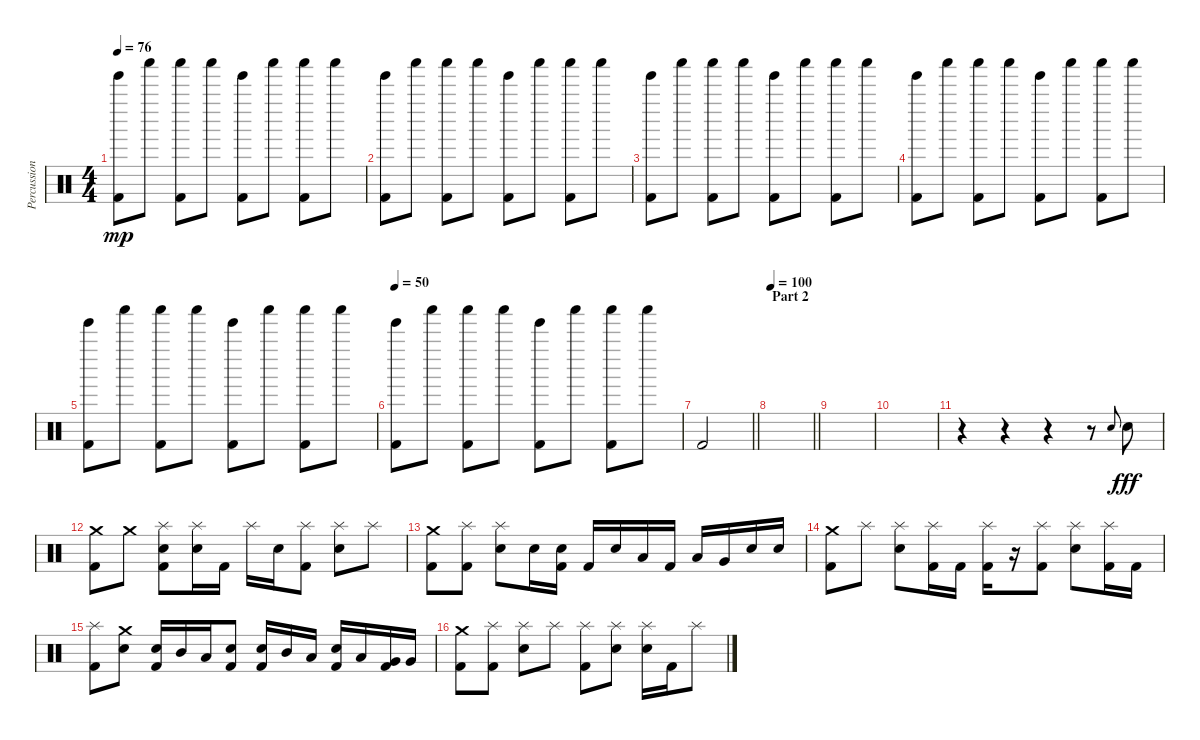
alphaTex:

\track ("Percussion" "Percussion") {instrument percussion}
\staff {score}
\articulation defaults
\ts (4 4)
\tempo 76
\clef neutral
\ks c
("Tinkle Bell (hit)" "Kick (hit) 2").8{dy mp} "Shaker (hit)".8 ("Shaker (hit)" "Kick (hit) 2").8 "Shaker (hit)".8 ("Tinkle Bell (hit)" "Kick (hit) 2").8 "Shaker (hit)".8 ("Shaker (hit)" "Kick (hit) 2").8 "Shaker (hit)".8 |
("Tinkle Bell (hit)" "Kick (hit) 2").8 "Shaker (hit)".8 ("Shaker (hit)" "Kick (hit) 2").8 "Shaker (hit)".8 ("Tinkle Bell (hit)" "Kick (hit) 2").8 "Shaker (hit)".8 ("Shaker (hit)" "Kick (hit) 2").8 "Shaker (hit)".8 |
("Tinkle Bell (hit)" "Kick (hit) 2").8 "Shaker (hit)".8 ("Shaker (hit)" "Kick (hit) 2").8 "Shaker (hit)".8 ("Tinkle Bell (hit)" "Kick (hit) 2").8 "Shaker (hit)".8 ("Shaker (hit)" "Kick (hit) 2").8 "Shaker (hit)".8 |
("Tinkle Bell (hit)" "Kick (hit) 2").8 "Shaker (hit)".8 ("Shaker (hit)" "Kick (hit) 2").8 "Shaker (hit)".8 ("Tinkle Bell (hit)" "Kick (hit) 2").8 "Shaker (hit)".8 ("Shaker (hit)" "Kick (hit) 2").8 "Shaker (hit)".8 |
("Tinkle Bell (hit)" "Kick (hit) 2").8 "Shaker (hit)".8 ("Shaker (hit)" "Kick (hit) 2").8 "Shaker (hit)".8 ("Tinkle Bell (hit)" "Kick (hit) 2").8 "Shaker (hit)".8 ("Shaker (hit)" "Kick (hit) 2").8 "Shaker (hit)".8 |
\tempo 50
("Tinkle Bell (hit)" "Kick (hit) 2").8 "Shaker (hit)".8 ("Shaker (hit)" "Kick (hit) 2").8 "Shaker (hit)".8 ("Tinkle Bell (hit)" "Kick (hit) 2").8 "Shaker (hit)".8 ("Shaker (hit)" "Kick (hit) 2").8 "Shaker (hit)".8 |
\barLineRight lightlight "Kick (hit) 2".2
|
\section ("" "Part 2")
\tempo 100
\barLineRight lightlight
|
|
|
r.4 r.4 r.4 r.8 "Snare (hit) 2".8{gr onbeat} "Snare (hit) 2".8{dy fff} |
("Crash medium (hit)" "Kick (hit) 2").8 "Crash medium (hit)".8 ("Splash (hit)" "Snare (hit) 2" "Kick (hit) 2").8 ("Splash (hit)" "Snare (hit) 2").16 "Kick (hit) 2".16 "Splash (hit)".16 "Snare (hit) 2".16 ("Splash (hit)" "Kick (hit) 2").8 ("Splash (hit)" "Snare (hit) 2").8 "Splash (hit)".8 |
("Crash medium (hit)" "Kick (hit) 2").8 ("Splash (hit)" "Kick (hit) 2").8 ("Splash (hit)" "Snare (hit) 2").8 "Snare (hit) 2".16 ("Snare (hit) 2" "Kick (hit) 2").16 "Kick (hit) 2".16 "Snare (hit) 2".16 "Low Tom (hit)".16 "Kick (hit) 2".16 "Low Tom (hit)".16 "Very Low Tom (hit)".16 "Snare (hit) 2".16 "Snare (hit) 2".16 |
("Crash medium (hit)" "Kick (hit) 2").8 "Splash (hit)".8 ("Splash (hit)" "Snare (hit) 2").8 ("Splash (hit)" "Kick (hit) 2").16 "Kick (hit) 2".16 ("Splash (hit)" "Kick (hit) 2").16 r.16 ("Splash (hit)" "Kick (hit) 2").8 ("Splash (hit)" "Snare (hit) 2").8 ("Splash (hit)" "Kick (hit) 2").16 "Kick (hit) 2".16 |
("Splash (hit)" "Kick (hit) 2").8 ("Crash medium (hit)" "Snare (hit) 2").8 ("Snare (hit) 2" "Kick (hit) 2").16 "Mid Tom (hit)".16 "Low Tom (hit)".16 ("Snare (hit) 2" "Kick (hit) 2").8 ("Snare (hit) 2" "Kick (hit) 2").16 "Mid Tom (hit)".16 "Low Tom (hit)".16 ("Snare (hit) 2" "Kick (hit) 2").16 "Low Tom (hit)".16 ("Very Low Tom (hit)" "Kick (hit) 2").16 "Very Low Tom (hit)".16 |
("Crash medium (hit)" "Kick (hit) 2").8 ("Splash (hit)" "Kick (hit) 2").8 ("Splash (hit)" "Snare (hit) 2").8 "Splash (hit)".8 ("Splash (hit)" "Kick (hit) 2").8 ("Splash (hit)" "Snare (hit) 2").8 ("Splash (hit)" "Snare (hit) 2").16 "Kick (hit) 2".16 "Splash (hit)".8
